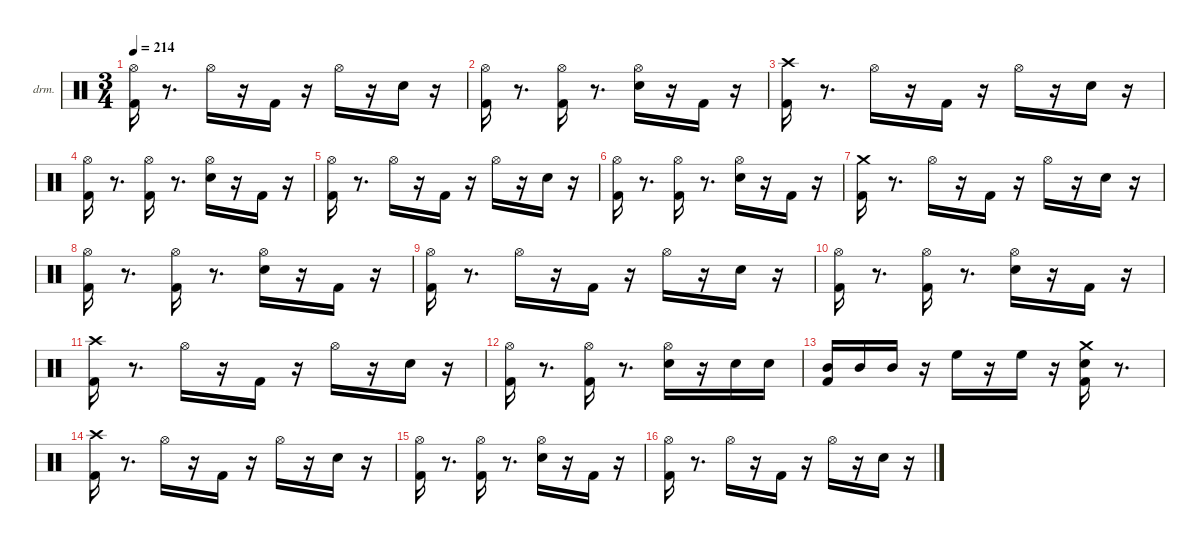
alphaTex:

\hideDynamics
\bracketExtendMode nobrackets
\firstSystemTrackNameOrientation horizontal
\otherSystemsTrackNameOrientation horizontal
\track ("EZdrummer 3" "drm.") {instrument percussion}
\staff {score}
\articulation defaults
\ts (3 4)
\tempo 214
\clef neutral
\ks aminor
("Kick (hit) 2" "Hi-Hat (open)"{acc #}).16{dy fff} r.8{d} "Hi-Hat (open)"{acc #}.16{dy mf} r.16 "Kick (hit) 2".16{dy ff} r.16 "Hi-Hat (open)"{acc #}.16{dy f} r.16 "Snare (hit) 2".16{dy ff} r.16 |
("Kick (hit) 2" "Hi-Hat (open)"{acc #}).16{dy fff} r.8{d} ("Kick (hit) 2" "Hi-Hat (open)"{acc #}).16{dy ff} r.8{d} ("Snare (hit) 2" "Hi-Hat (open)"{acc #}).16{dy f} r.16 "Kick (hit) 2".16{dy mp} r.16 |
("Kick (hit) 2" "Crash high (hit)"{acc #}).16{dy fff} r.8{d} "Hi-Hat (open)"{acc #}.16{dy mf} r.16 "Kick (hit) 2".16{dy ff} r.16 "Hi-Hat (open)"{acc #}.16{dy f} r.16 "Snare (hit) 2".16{dy ff} r.16 |
("Kick (hit) 2" "Hi-Hat (open)"{acc #}).16 r.8{d} ("Kick (hit) 2" "Hi-Hat (open)"{acc #}).16{dy f} r.8{d} ("Snare (hit) 2" "Hi-Hat (open)"{acc #}).16 r.16 "Kick (hit) 2".16{dy mp} r.16 |
("Kick (hit) 2" "Hi-Hat (open)"{acc #}).16{dy fff} r.8{d} "Hi-Hat (open)"{acc #}.16{dy mf} r.16 "Kick (hit) 2".16{dy ff} r.16 "Hi-Hat (open)"{acc #}.16{dy f} r.16 "Snare (hit) 2".16{dy ff} r.16 |
("Kick (hit) 2" "Hi-Hat (open)"{acc #}).16{dy fff} r.8{d} ("Kick (hit) 2" "Hi-Hat (open)"{acc #}).16{dy ff} r.8{d} ("Snare (hit) 2" "Hi-Hat (open)"{acc #}).16{dy f} r.16 "Kick (hit) 2".16{dy mp} r.16 |
("Kick (hit) 2" "Crash medium (hit)").16{dy fff} r.8{d} "Hi-Hat (open)"{acc #}.16{dy mf} r.16 "Kick (hit) 2".16{dy ff} r.16 "Hi-Hat (open)"{acc #}.16{dy f} r.16 "Snare (hit) 2".16{dy ff} r.16 |
("Kick (hit) 2" "Hi-Hat (open)"{acc #}).16 r.8{d} ("Kick (hit) 2" "Hi-Hat (open)"{acc #}).16{dy mf} r.8{d} ("Snare (hit) 2" "Hi-Hat (open)"{acc #}).16{dy f} r.16 "Kick (hit) 2".16{dy mp} r.16 |
("Kick (hit) 2" "Hi-Hat (open)"{acc #}).16{dy fff} r.8{d} "Hi-Hat (open)"{acc #}.16{dy mf} r.16 "Kick (hit) 2".16{dy ff} r.16 "Hi-Hat (open)"{acc #}.16{dy f} r.16 "Snare (hit) 2".16{dy ff} r.16 |
("Kick (hit) 2" "Hi-Hat (open)"{acc #}).16{dy fff} r.8{d} ("Kick (hit) 2" "Hi-Hat (open)"{acc #}).16{dy ff} r.8{d} ("Snare (hit) 2" "Hi-Hat (open)"{acc #}).16{dy f} r.16 "Kick (hit) 2".16{dy mp} r.16 |
("Kick (hit) 2" "Crash high (hit)"{acc #}).16{dy ff} r.8{d} "Hi-Hat (open)"{acc #}.16{dy f} r.16 "Kick (hit) 2".16{dy ff} r.16 "Hi-Hat (open)"{acc #}.16 r.16 "Snare (hit) 2".16 r.16 |
("Kick (hit) 2" "Hi-Hat (open)"{acc #}).16{dy f} r.8{d} ("Kick (hit) 2" "Hi-Hat (open)"{acc #}).16{dy mf} r.8{d} ("Snare (hit) 2" "Hi-Hat (open)"{acc #}).16{dy ff} r.16 "Snare (hit) 2".16{dy mf} "Snare (hit) 2".16{dy pp} |
("Kick (hit) 2" "Mid Tom (hit)").16{dy ff} "Mid Tom (hit)".16{dy mf} "Mid Tom (hit)".16{dy fff} r.16 "High Floor Tom (hit)".16{dy ff} r.16 "High Floor Tom (hit)".16{dy mf} r.16 ("Kick (hit) 2" "Snare (hit) 2" "Crash medium (hit)").16{dy f} r.8{d} |
("Kick (hit) 2" "Crash high (hit)"{acc #}).16{dy fff} r.8{d} "Hi-Hat (open)"{acc #}.16{dy mf} r.16 "Kick (hit) 2".16{dy ff} r.16 "Hi-Hat (open)"{acc #}.16{dy f} r.16 "Snare (hit) 2".16{dy ff} r.16 |
("Kick (hit) 2" "Hi-Hat (open)"{acc #}).16 r.8{d} ("Kick (hit) 2" "Hi-Hat (open)"{acc #}).16{dy f} r.8{d} ("Snare (hit) 2" "Hi-Hat (open)"{acc #}).16 r.16 "Kick (hit) 2".16{dy mp} r.16 |
("Kick (hit) 2" "Hi-Hat (open)"{acc #}).16{dy fff} r.8{d} "Hi-Hat (open)"{acc #}.16{dy mf} r.16 "Kick (hit) 2".16{dy ff} r.16 "Hi-Hat (open)"{acc #}.16{dy f} r.16 "Snare (hit) 2".16{dy ff} r.16
